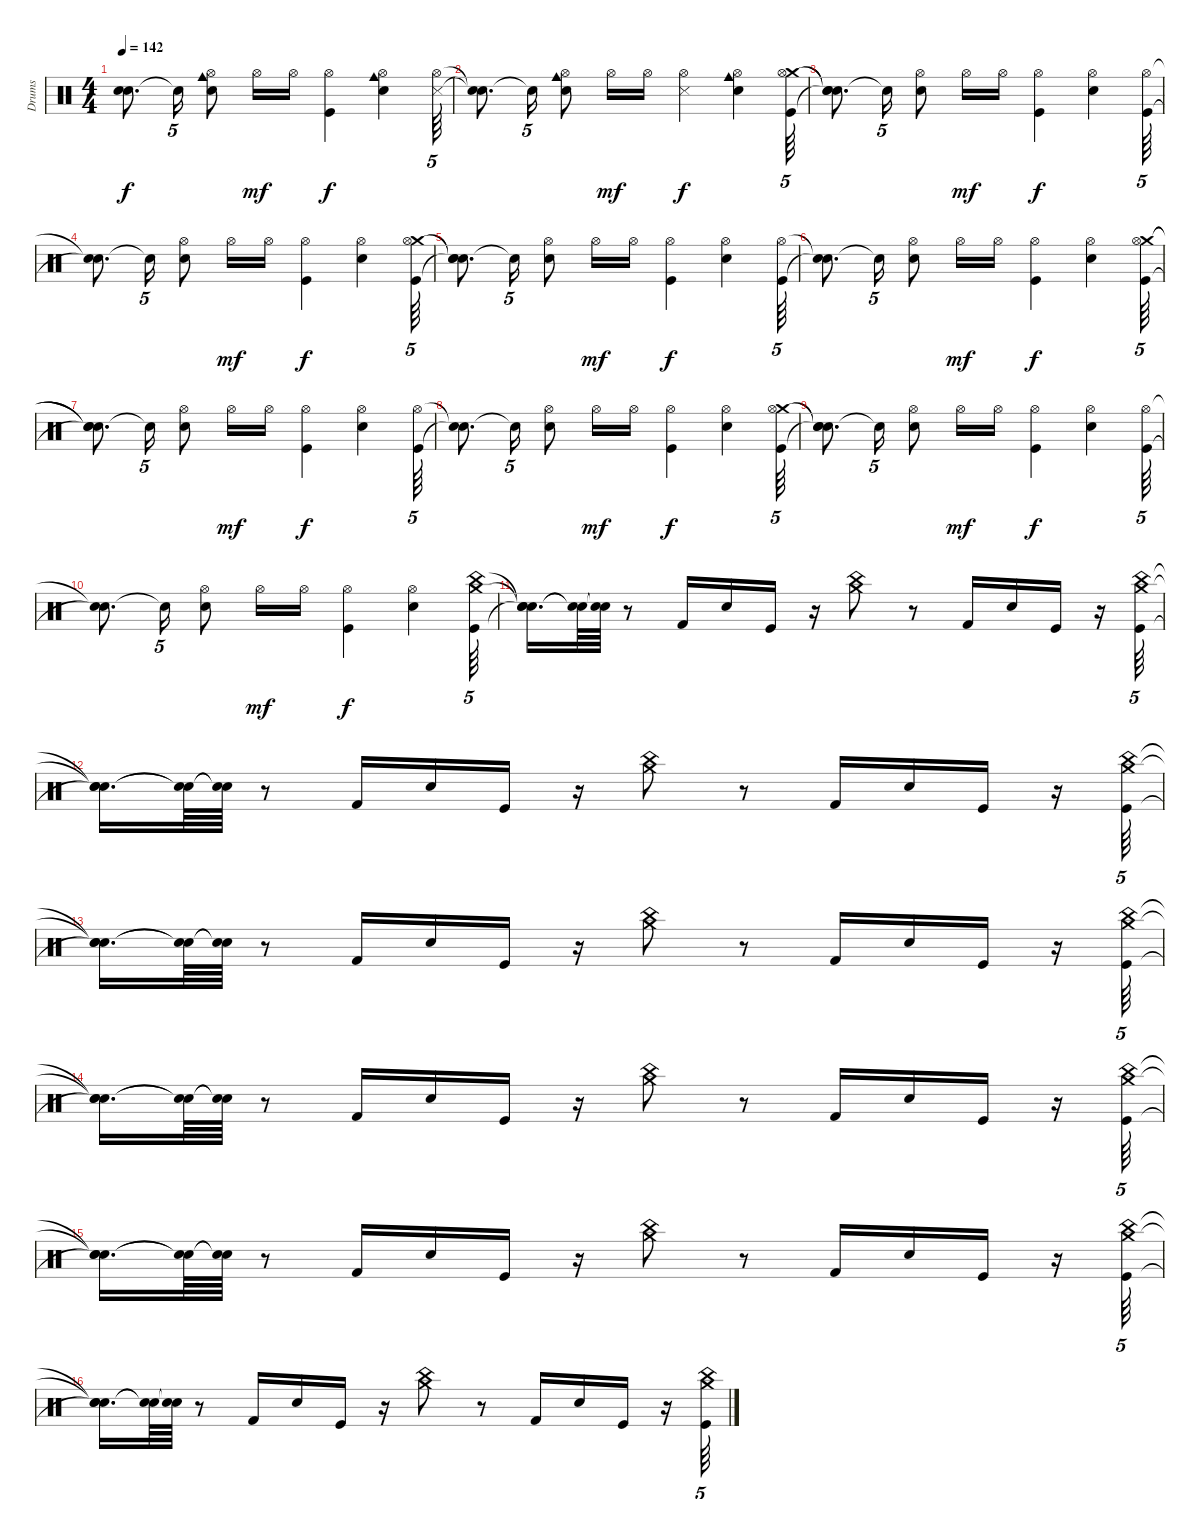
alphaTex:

\track ("Drums" "Drums") {instrument percussion}
\staff {score}
\articulation defaults
\ts (4 4)
\tempo 142
\clef neutral
\ks c
("Snare (hit)"{t} "Snare (hit)"{t}).8{d dy f} "Snare (hit)"{t}.16{tu (5 4)} ("Snare (hit) 2" "Hi-Hat (open)" "Cowbell medium (hit)").8 "Hi-Hat (open)".16{dy mf} "Hi-Hat (open)".16 ("Kick (hit)" "Hi-Hat (open)").4{dy f} ("Snare (hit) 2" "Hi-Hat (open)" "Cowbell medium (hit)").4 ("Hi-Hat (open)" "Metronome (hit)").64{tu (5 4)} |
("Snare (hit)"{t} "Snare (hit)"{t}).8{d} "Snare (hit)"{t}.16{tu (5 4)} ("Snare (hit) 2" "Hi-Hat (open)" "Cowbell medium (hit)").8 "Hi-Hat (open)".16{dy mf} "Hi-Hat (open)".16 ("Metronome (hit)" "Hi-Hat (open)").4{dy f} ("Snare (hit) 2" "Hi-Hat (open)" "Cowbell medium (hit)").4 ("Crash medium (hit)" "Hi-Hat (open)" "Kick (hit)").64{tu (5 4)} |
("Snare (hit)"{t} "Snare (hit)"{t} "Snare (hit)"{t}).8{d} "Snare (hit)"{t}.16{tu (5 4)} ("Snare (hit) 2" "Hi-Hat (open)").8 "Hi-Hat (open)".16{dy mf} "Hi-Hat (open)".16 ("Kick (hit)" "Hi-Hat (open)").4{dy f} ("Snare (hit) 2" "Hi-Hat (open)").4 ("Hi-Hat (open)" "Kick (hit)").64{tu (5 4)} |
("Snare (hit)"{t} "Snare (hit)"{t}).8{d} "Snare (hit)"{t}.16{tu (5 4)} ("Snare (hit) 2" "Hi-Hat (open)").8 "Hi-Hat (open)".16{dy mf} "Hi-Hat (open)".16 ("Kick (hit)" "Hi-Hat (open)").4{dy f} ("Snare (hit) 2" "Hi-Hat (open)").4 ("Crash medium (hit)" "Hi-Hat (open)" "Kick (hit)").64{tu (5 4)} |
("Snare (hit)"{t} "Snare (hit)"{t} "Snare (hit)"{t}).8{d} "Snare (hit)"{t}.16{tu (5 4)} ("Snare (hit) 2" "Hi-Hat (open)").8 "Hi-Hat (open)".16{dy mf} "Hi-Hat (open)".16 ("Kick (hit)" "Hi-Hat (open)").4{dy f} ("Snare (hit) 2" "Hi-Hat (open)").4 ("Hi-Hat (open)" "Kick (hit)").64{tu (5 4)} |
("Snare (hit)"{t} "Snare (hit)"{t}).8{d} "Snare (hit)"{t}.16{tu (5 4)} ("Snare (hit) 2" "Hi-Hat (open)").8 "Hi-Hat (open)".16{dy mf} "Hi-Hat (open)".16 ("Kick (hit)" "Hi-Hat (open)").4{dy f} ("Snare (hit) 2" "Hi-Hat (open)").4 ("Crash medium (hit)" "Hi-Hat (open)" "Kick (hit)").64{tu (5 4)} |
("Snare (hit)"{t} "Snare (hit)"{t} "Snare (hit)"{t}).8{d} "Snare (hit)"{t}.16{tu (5 4)} ("Snare (hit) 2" "Hi-Hat (open)").8 "Hi-Hat (open)".16{dy mf} "Hi-Hat (open)".16 ("Kick (hit)" "Hi-Hat (open)").4{dy f} ("Snare (hit) 2" "Hi-Hat (open)").4 ("Hi-Hat (open)" "Kick (hit)").64{tu (5 4)} |
("Snare (hit)"{t} "Snare (hit)"{t}).8{d} "Snare (hit)"{t}.16{tu (5 4)} ("Snare (hit) 2" "Hi-Hat (open)").8 "Hi-Hat (open)".16{dy mf} "Hi-Hat (open)".16 ("Kick (hit)" "Hi-Hat (open)").4{dy f} ("Snare (hit) 2" "Hi-Hat (open)").4 ("Crash medium (hit)" "Hi-Hat (open)" "Kick (hit)").64{tu (5 4)} |
("Snare (hit)"{t} "Snare (hit)"{t} "Snare (hit)"{t}).8{d} "Snare (hit)"{t}.16{tu (5 4)} ("Snare (hit) 2" "Hi-Hat (open)").8 "Hi-Hat (open)".16{dy mf} "Hi-Hat (open)".16 ("Kick (hit)" "Hi-Hat (open)").4{dy f} ("Snare (hit) 2" "Hi-Hat (open)").4 ("Hi-Hat (open)" "Kick (hit)").64{tu (5 4)} |
("Snare (hit)"{t} "Snare (hit)"{t}).8{d} "Snare (hit)"{t}.16{tu (5 4)} ("Snare (hit) 2" "Hi-Hat (open)").8 "Hi-Hat (open)".16{dy mf} "Hi-Hat (open)".16 ("Kick (hit)" "Hi-Hat (open)").4{dy f} ("Snare (hit) 2" "Hi-Hat (open)").4 ("Kick (hit)" "China (hit)" "Crash medium (hit)").64{tu (5 4)} |
("Snare (hit)"{t} "Snare (hit)"{t} "Snare (hit)"{t}).16{d} ("Snare (hit)"{t} "Snare (hit)"{t}).64 ("Snare (hit)"{t} "Snare (hit)"{t}).64 r.8 "Kick (hit) 2".16 "Snare (hit) 2".16 "Kick (hit)".16 r.16 ("China (hit)" "Crash medium (hit)").8 r.8 "Kick (hit) 2".16 "Snare (hit) 2".16 "Kick (hit)".16 r.16 ("Kick (hit)" "China (hit)" "Crash medium (hit)").64{tu (5 4)} |
("Snare (hit)"{t} "Snare (hit)"{t} "Snare (hit)"{t}).16{d} ("Snare (hit)"{t} "Snare (hit)"{t}).64 ("Snare (hit)"{t} "Snare (hit)"{t}).64 r.8 "Kick (hit) 2".16 "Snare (hit) 2".16 "Kick (hit)".16 r.16 ("China (hit)" "Crash medium (hit)").8 r.8 "Kick (hit) 2".16 "Snare (hit) 2".16 "Kick (hit)".16 r.16 ("Kick (hit)" "China (hit)" "Crash medium (hit)").64{tu (5 4)} |
("Snare (hit)"{t} "Snare (hit)"{t} "Snare (hit)"{t}).16{d} ("Snare (hit)"{t} "Snare (hit)"{t}).64 ("Snare (hit)"{t} "Snare (hit)"{t}).64 r.8 "Kick (hit) 2".16 "Snare (hit) 2".16 "Kick (hit)".16 r.16 ("China (hit)" "Crash medium (hit)").8 r.8 "Kick (hit) 2".16 "Snare (hit) 2".16 "Kick (hit)".16 r.16 ("Kick (hit)" "China (hit)" "Crash medium (hit)").64{tu (5 4)} |
("Snare (hit)"{t} "Snare (hit)"{t} "Snare (hit)"{t}).16{d} ("Snare (hit)"{t} "Snare (hit)"{t}).64 ("Snare (hit)"{t} "Snare (hit)"{t}).64 r.8 "Kick (hit) 2".16 "Snare (hit) 2".16 "Kick (hit)".16 r.16 ("China (hit)" "Crash medium (hit)").8 r.8 "Kick (hit) 2".16 "Snare (hit) 2".16 "Kick (hit)".16 r.16 ("Kick (hit)" "China (hit)" "Crash medium (hit)").64{tu (5 4)} |
("Snare (hit)"{t} "Snare (hit)"{t} "Snare (hit)"{t}).16{d} ("Snare (hit)"{t} "Snare (hit)"{t}).64 ("Snare (hit)"{t} "Snare (hit)"{t}).64 r.8 "Kick (hit) 2".16 "Snare (hit) 2".16 "Kick (hit)".16 r.16 ("China (hit)" "Crash medium (hit)").8 r.8 "Kick (hit) 2".16 "Snare (hit) 2".16 "Kick (hit)".16 r.16 ("Kick (hit)" "China (hit)" "Crash medium (hit)").64{tu (5 4)} |
("Snare (hit)"{t} "Snare (hit)"{t} "Snare (hit)"{t}).16{d} ("Snare (hit)"{t} "Snare (hit)"{t}).64 ("Snare (hit)"{t} "Snare (hit)"{t}).64 r.8 "Kick (hit) 2".16 "Snare (hit) 2".16 "Kick (hit)".16 r.16 ("China (hit)" "Crash medium (hit)").8 r.8 "Kick (hit) 2".16 "Snare (hit) 2".16 "Kick (hit)".16 r.16 ("Kick (hit)" "China (hit)" "Crash medium (hit)").64{tu (5 4)}
